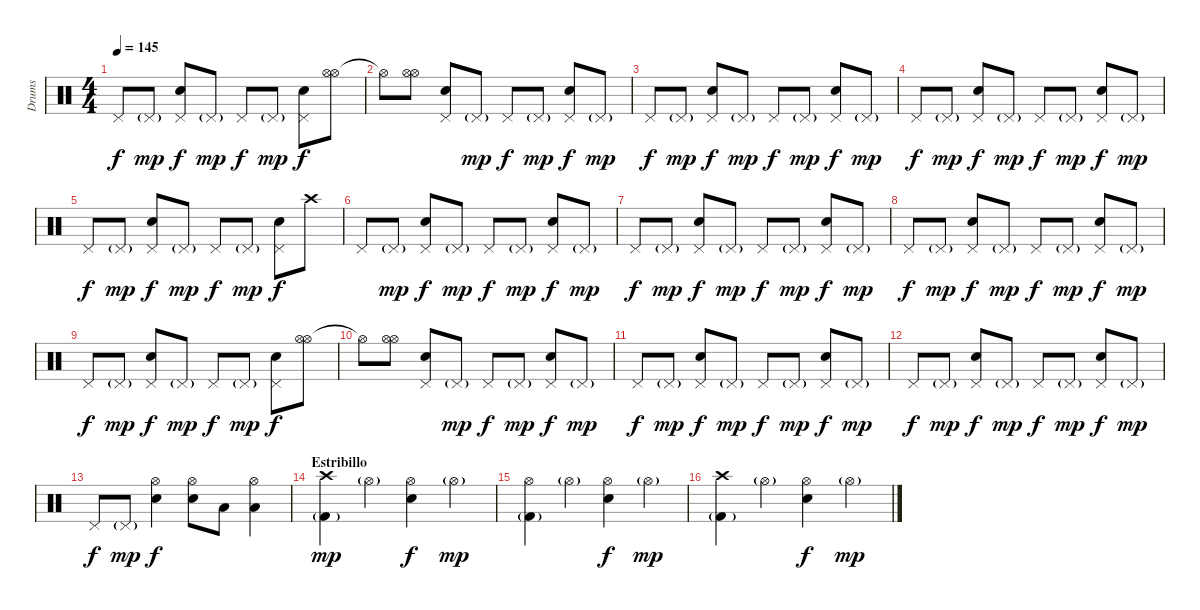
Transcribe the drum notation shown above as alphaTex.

\track ("Drums" "Drums") {instrument percussion}
\staff {score}
\articulation defaults
\ts (4 4)
\tempo 145
\clef neutral
\ks c "Pedal Hi-Hat (hit)".8{dy f} "Pedal Hi-Hat (hit)"{g}.8{dy mp}
("Pedal Hi-Hat (hit)" "Electric Snare (hit)").8{dy f} "Pedal Hi-Hat (hit)"{g}.8{dy mp} "Pedal Hi-Hat (hit)".8{dy f} "Pedal Hi-Hat (hit)"{g}.8{dy mp} ("Pedal Hi-Hat (hit)" "Electric Snare (hit)").8{dy f} ("Hi-Hat (open)" "Hi-Hat (open)").8 |
"Hi-Hat (open)"{t}.8 ("Hi-Hat (open)" "Hi-Hat (open)").8 ("Pedal Hi-Hat (hit)" "Electric Snare (hit)").8 "Pedal Hi-Hat (hit)"{g}.8{dy mp} "Pedal Hi-Hat (hit)".8{dy f} "Pedal Hi-Hat (hit)"{g}.8{dy mp} ("Pedal Hi-Hat (hit)" "Electric Snare (hit)").8{dy f} "Pedal Hi-Hat (hit)"{g}.8{dy mp} |
"Pedal Hi-Hat (hit)".8{dy f} "Pedal Hi-Hat (hit)"{g}.8{dy mp} ("Pedal Hi-Hat (hit)" "Electric Snare (hit)").8{dy f} "Pedal Hi-Hat (hit)"{g}.8{dy mp} "Pedal Hi-Hat (hit)".8{dy f} "Pedal Hi-Hat (hit)"{g}.8{dy mp} ("Pedal Hi-Hat (hit)" "Electric Snare (hit)").8{dy f} "Pedal Hi-Hat (hit)"{g}.8{dy mp} |
"Pedal Hi-Hat (hit)".8{dy f} "Pedal Hi-Hat (hit)"{g}.8{dy mp} ("Pedal Hi-Hat (hit)" "Electric Snare (hit)").8{dy f} "Pedal Hi-Hat (hit)"{g}.8{dy mp} "Pedal Hi-Hat (hit)".8{dy f} "Pedal Hi-Hat (hit)"{g}.8{dy mp} ("Pedal Hi-Hat (hit)" "Electric Snare (hit)").8{dy f} "Pedal Hi-Hat (hit)"{g}.8{dy mp} |
"Pedal Hi-Hat (hit)".8{dy f} "Pedal Hi-Hat (hit)"{g}.8{dy mp} ("Pedal Hi-Hat (hit)" "Electric Snare (hit)").8{dy f} "Pedal Hi-Hat (hit)"{g}.8{dy mp} "Pedal Hi-Hat (hit)".8{dy f} "Pedal Hi-Hat (hit)"{g}.8{dy mp} ("Pedal Hi-Hat (hit)" "Electric Snare (hit)").8{dy f} "Crash high (hit)".8 |
"Pedal Hi-Hat (hit)".8 "Pedal Hi-Hat (hit)"{g}.8{dy mp} ("Pedal Hi-Hat (hit)" "Electric Snare (hit)").8{dy f} "Pedal Hi-Hat (hit)"{g}.8{dy mp} "Pedal Hi-Hat (hit)".8{dy f} "Pedal Hi-Hat (hit)"{g}.8{dy mp} ("Pedal Hi-Hat (hit)" "Electric Snare (hit)").8{dy f} "Pedal Hi-Hat (hit)"{g}.8{dy mp} |
"Pedal Hi-Hat (hit)".8{dy f} "Pedal Hi-Hat (hit)"{g}.8{dy mp} ("Pedal Hi-Hat (hit)" "Electric Snare (hit)").8{dy f} "Pedal Hi-Hat (hit)"{g}.8{dy mp} "Pedal Hi-Hat (hit)".8{dy f} "Pedal Hi-Hat (hit)"{g}.8{dy mp} ("Pedal Hi-Hat (hit)" "Electric Snare (hit)").8{dy f} "Pedal Hi-Hat (hit)"{g}.8{dy mp} |
"Pedal Hi-Hat (hit)".8{dy f} "Pedal Hi-Hat (hit)"{g}.8{dy mp} ("Pedal Hi-Hat (hit)" "Electric Snare (hit)").8{dy f} "Pedal Hi-Hat (hit)"{g}.8{dy mp} "Pedal Hi-Hat (hit)".8{dy f} "Pedal Hi-Hat (hit)"{g}.8{dy mp} ("Pedal Hi-Hat (hit)" "Electric Snare (hit)").8{dy f} "Pedal Hi-Hat (hit)"{g}.8{dy mp} |
"Pedal Hi-Hat (hit)".8{dy f} "Pedal Hi-Hat (hit)"{g}.8{dy mp} ("Pedal Hi-Hat (hit)" "Electric Snare (hit)").8{dy f} "Pedal Hi-Hat (hit)"{g}.8{dy mp} "Pedal Hi-Hat (hit)".8{dy f} "Pedal Hi-Hat (hit)"{g}.8{dy mp} ("Pedal Hi-Hat (hit)" "Electric Snare (hit)").8{dy f} ("Hi-Hat (open)" "Hi-Hat (open)").8 |
"Hi-Hat (open)"{t}.8 ("Hi-Hat (open)" "Hi-Hat (open)").8 ("Pedal Hi-Hat (hit)" "Electric Snare (hit)").8 "Pedal Hi-Hat (hit)"{g}.8{dy mp} "Pedal Hi-Hat (hit)".8{dy f} "Pedal Hi-Hat (hit)"{g}.8{dy mp} ("Pedal Hi-Hat (hit)" "Electric Snare (hit)").8{dy f} "Pedal Hi-Hat (hit)"{g}.8{dy mp} |
"Pedal Hi-Hat (hit)".8{dy f} "Pedal Hi-Hat (hit)"{g}.8{dy mp} ("Pedal Hi-Hat (hit)" "Electric Snare (hit)").8{dy f} "Pedal Hi-Hat (hit)"{g}.8{dy mp} "Pedal Hi-Hat (hit)".8{dy f} "Pedal Hi-Hat (hit)"{g}.8{dy mp} ("Pedal Hi-Hat (hit)" "Electric Snare (hit)").8{dy f} "Pedal Hi-Hat (hit)"{g}.8{dy mp} |
"Pedal Hi-Hat (hit)".8{dy f} "Pedal Hi-Hat (hit)"{g}.8{dy mp} ("Pedal Hi-Hat (hit)" "Electric Snare (hit)").8{dy f} "Pedal Hi-Hat (hit)"{g}.8{dy mp} "Pedal Hi-Hat (hit)".8{dy f} "Pedal Hi-Hat (hit)"{g}.8{dy mp} ("Pedal Hi-Hat (hit)" "Electric Snare (hit)").8{dy f} "Pedal Hi-Hat (hit)"{g}.8{dy mp} |
"Pedal Hi-Hat (hit)".8{dy f} "Pedal Hi-Hat (hit)"{g}.8{dy mp} ("Hi-Hat (open)" "Electric Snare (hit)").4{dy f} ("Hi-Hat (open)" "Electric Snare (hit)").8 "Low Floor Tom (hit)".8 ("Hi-Hat (open)" "Low Floor Tom (hit)").4 |
\section ("" "Estribillo")
("Crash high (hit)" "Kick (hit) 2"{g}).4{dy mp} "Hi-Hat (open)"{g}.4 ("Hi-Hat (open)" "Electric Snare (hit)").4{dy f} "Hi-Hat (open)"{g}.4{dy mp} |
("Hi-Hat (open)" "Kick (hit) 2"{g}).4 "Hi-Hat (open)"{g}.4 ("Hi-Hat (open)" "Electric Snare (hit)").4{dy f} "Hi-Hat (open)"{g}.4{dy mp} |
("Crash high (hit)" "Kick (hit) 2"{g}).4 "Hi-Hat (open)"{g}.4 ("Hi-Hat (open)" "Electric Snare (hit)").4{dy f} "Hi-Hat (open)"{g}.4{dy mp}
